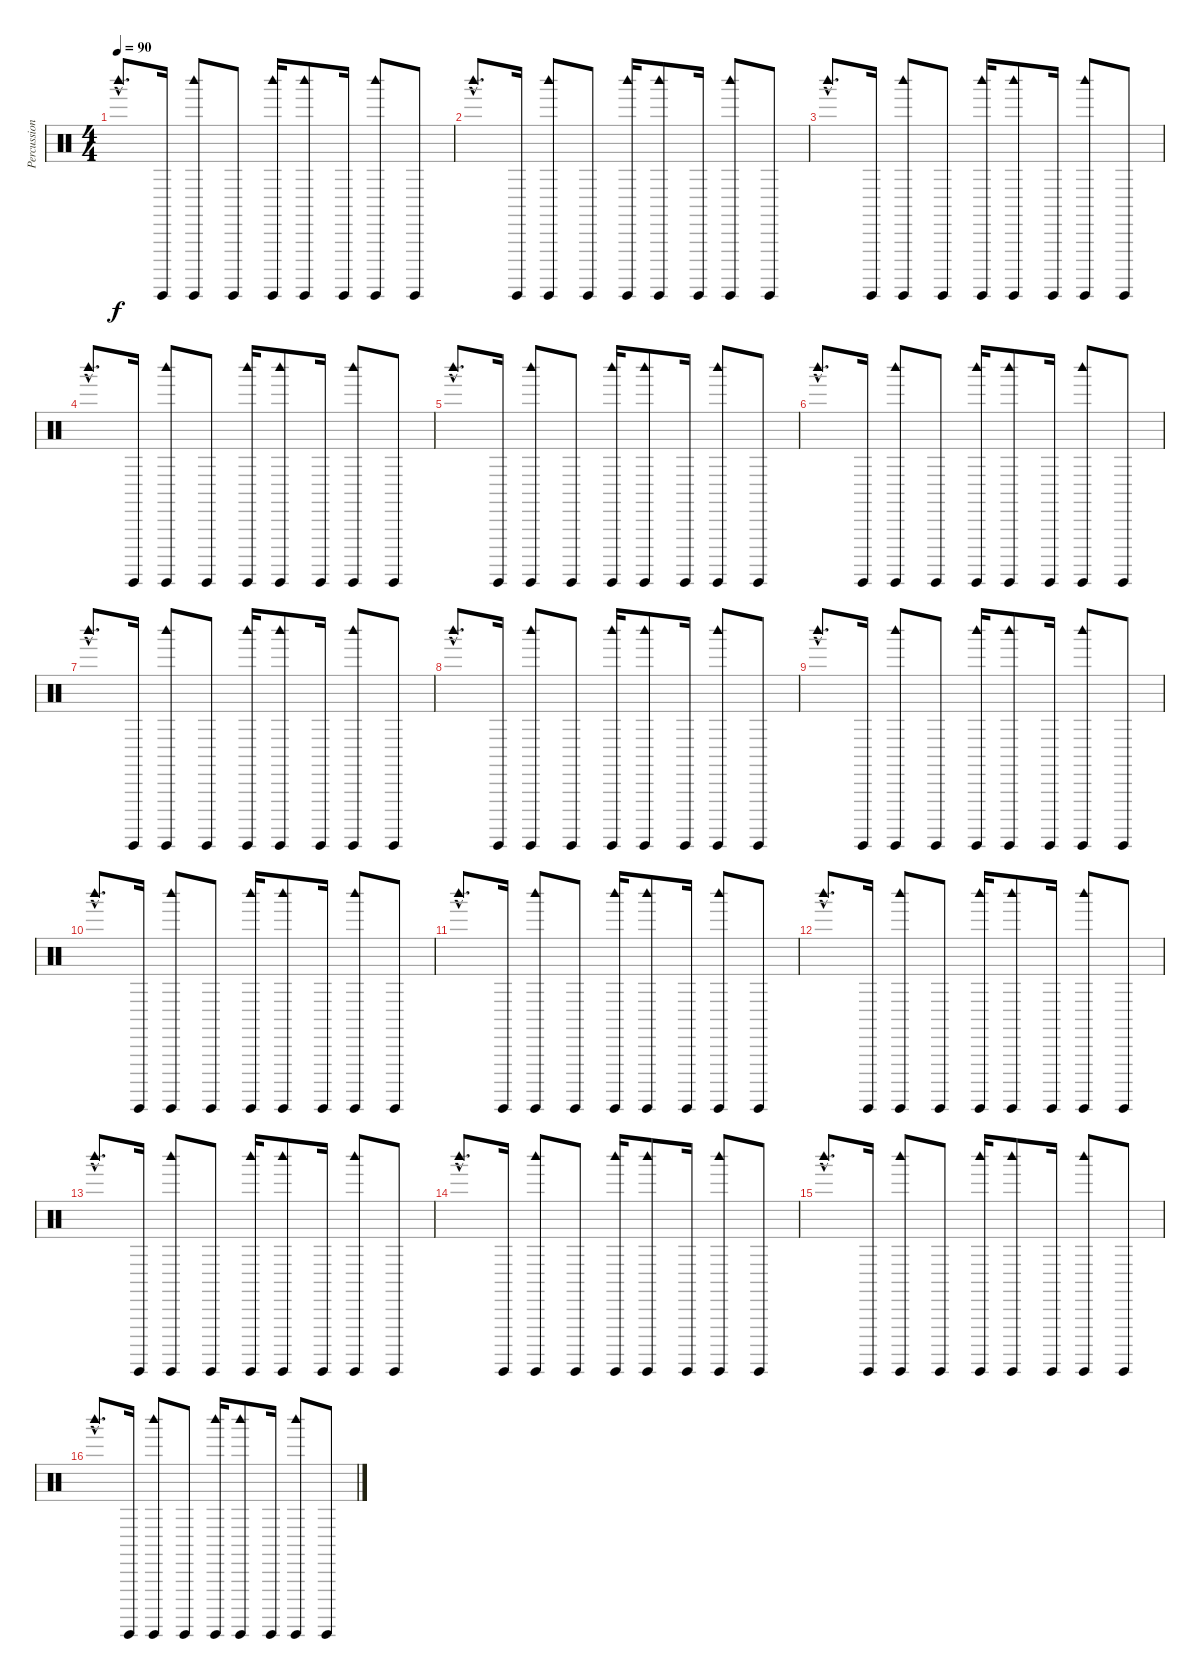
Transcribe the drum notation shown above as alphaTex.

\track ("Percussions" "Percussion") {instrument percussion}
\staff {score}
\articulation defaults
\ts (4 4)
\tempo 90
\clef neutral
\ks c "Woodblock high (hit)"{hac}.8{d dy f} "Guiro (hit)".16
("Guiro (hit)" "Woodblock high (hit)").8 "Guiro (hit)".8 ("Guiro (hit)" "Woodblock high (hit)").16 ("Guiro (hit)" "Woodblock high (hit)").8 "Guiro (hit)".16 ("Guiro (hit)" "Woodblock high (hit)").8 "Guiro (hit)".8 |
"Woodblock high (hit)"{hac}.8{d} "Guiro (hit)".16 ("Guiro (hit)" "Woodblock high (hit)").8 "Guiro (hit)".8 ("Guiro (hit)" "Woodblock high (hit)").16 ("Guiro (hit)" "Woodblock high (hit)").8 "Guiro (hit)".16 ("Guiro (hit)" "Woodblock high (hit)").8 "Guiro (hit)".8 |
"Woodblock high (hit)"{hac}.8{d} "Guiro (hit)".16 ("Guiro (hit)" "Woodblock high (hit)").8 "Guiro (hit)".8 ("Guiro (hit)" "Woodblock high (hit)").16 ("Guiro (hit)" "Woodblock high (hit)").8 "Guiro (hit)".16 ("Guiro (hit)" "Woodblock high (hit)").8 "Guiro (hit)".8 |
"Woodblock high (hit)"{hac}.8{d} "Guiro (hit)".16 ("Guiro (hit)" "Woodblock high (hit)").8 "Guiro (hit)".8 ("Guiro (hit)" "Woodblock high (hit)").16 ("Guiro (hit)" "Woodblock high (hit)").8 "Guiro (hit)".16 ("Guiro (hit)" "Woodblock high (hit)").8 "Guiro (hit)".8 |
"Woodblock high (hit)"{hac}.8{d} "Guiro (hit)".16 ("Guiro (hit)" "Woodblock high (hit)").8 "Guiro (hit)".8 ("Guiro (hit)" "Woodblock high (hit)").16 ("Guiro (hit)" "Woodblock high (hit)").8 "Guiro (hit)".16 ("Guiro (hit)" "Woodblock high (hit)").8 "Guiro (hit)".8 |
"Woodblock high (hit)"{hac}.8{d} "Guiro (hit)".16 ("Guiro (hit)" "Woodblock high (hit)").8 "Guiro (hit)".8 ("Guiro (hit)" "Woodblock high (hit)").16 ("Guiro (hit)" "Woodblock high (hit)").8 "Guiro (hit)".16 ("Guiro (hit)" "Woodblock high (hit)").8 "Guiro (hit)".8 |
"Woodblock high (hit)"{hac}.8{d} "Guiro (hit)".16 ("Guiro (hit)" "Woodblock high (hit)").8 "Guiro (hit)".8 ("Guiro (hit)" "Woodblock high (hit)").16 ("Guiro (hit)" "Woodblock high (hit)").8 "Guiro (hit)".16 ("Guiro (hit)" "Woodblock high (hit)").8 "Guiro (hit)".8 |
"Woodblock high (hit)"{hac}.8{d} "Guiro (hit)".16 ("Guiro (hit)" "Woodblock high (hit)").8 "Guiro (hit)".8 ("Guiro (hit)" "Woodblock high (hit)").16 ("Guiro (hit)" "Woodblock high (hit)").8 "Guiro (hit)".16 ("Guiro (hit)" "Woodblock high (hit)").8 "Guiro (hit)".8 |
"Woodblock high (hit)"{hac}.8{d} "Guiro (hit)".16 ("Guiro (hit)" "Woodblock high (hit)").8 "Guiro (hit)".8 ("Guiro (hit)" "Woodblock high (hit)").16 ("Guiro (hit)" "Woodblock high (hit)").8 "Guiro (hit)".16 ("Guiro (hit)" "Woodblock high (hit)").8 "Guiro (hit)".8 |
"Woodblock high (hit)"{hac}.8{d} "Guiro (hit)".16 ("Guiro (hit)" "Woodblock high (hit)").8 "Guiro (hit)".8 ("Guiro (hit)" "Woodblock high (hit)").16 ("Guiro (hit)" "Woodblock high (hit)").8 "Guiro (hit)".16 ("Guiro (hit)" "Woodblock high (hit)").8 "Guiro (hit)".8 |
"Woodblock high (hit)"{hac}.8{d} "Guiro (hit)".16 ("Guiro (hit)" "Woodblock high (hit)").8 "Guiro (hit)".8 ("Guiro (hit)" "Woodblock high (hit)").16 ("Guiro (hit)" "Woodblock high (hit)").8 "Guiro (hit)".16 ("Guiro (hit)" "Woodblock high (hit)").8 "Guiro (hit)".8 |
"Woodblock high (hit)"{hac}.8{d} "Guiro (hit)".16 ("Guiro (hit)" "Woodblock high (hit)").8 "Guiro (hit)".8 ("Guiro (hit)" "Woodblock high (hit)").16 ("Guiro (hit)" "Woodblock high (hit)").8 "Guiro (hit)".16 ("Guiro (hit)" "Woodblock high (hit)").8 "Guiro (hit)".8 |
"Woodblock high (hit)"{hac}.8{d} "Guiro (hit)".16 ("Guiro (hit)" "Woodblock high (hit)").8 "Guiro (hit)".8 ("Guiro (hit)" "Woodblock high (hit)").16 ("Guiro (hit)" "Woodblock high (hit)").8 "Guiro (hit)".16 ("Guiro (hit)" "Woodblock high (hit)").8 "Guiro (hit)".8 |
"Woodblock high (hit)"{hac}.8{d} "Guiro (hit)".16 ("Guiro (hit)" "Woodblock high (hit)").8 "Guiro (hit)".8 ("Guiro (hit)" "Woodblock high (hit)").16 ("Guiro (hit)" "Woodblock high (hit)").8 "Guiro (hit)".16 ("Guiro (hit)" "Woodblock high (hit)").8 "Guiro (hit)".8 |
"Woodblock high (hit)"{hac}.8{d} "Guiro (hit)".16 ("Guiro (hit)" "Woodblock high (hit)").8 "Guiro (hit)".8 ("Guiro (hit)" "Woodblock high (hit)").16 ("Guiro (hit)" "Woodblock high (hit)").8 "Guiro (hit)".16 ("Guiro (hit)" "Woodblock high (hit)").8 "Guiro (hit)".8 |
"Woodblock high (hit)"{hac}.8{d} "Guiro (hit)".16 ("Guiro (hit)" "Woodblock high (hit)").8 "Guiro (hit)".8 ("Guiro (hit)" "Woodblock high (hit)").16 ("Guiro (hit)" "Woodblock high (hit)").8 "Guiro (hit)".16 ("Guiro (hit)" "Woodblock high (hit)").8 "Guiro (hit)".8
